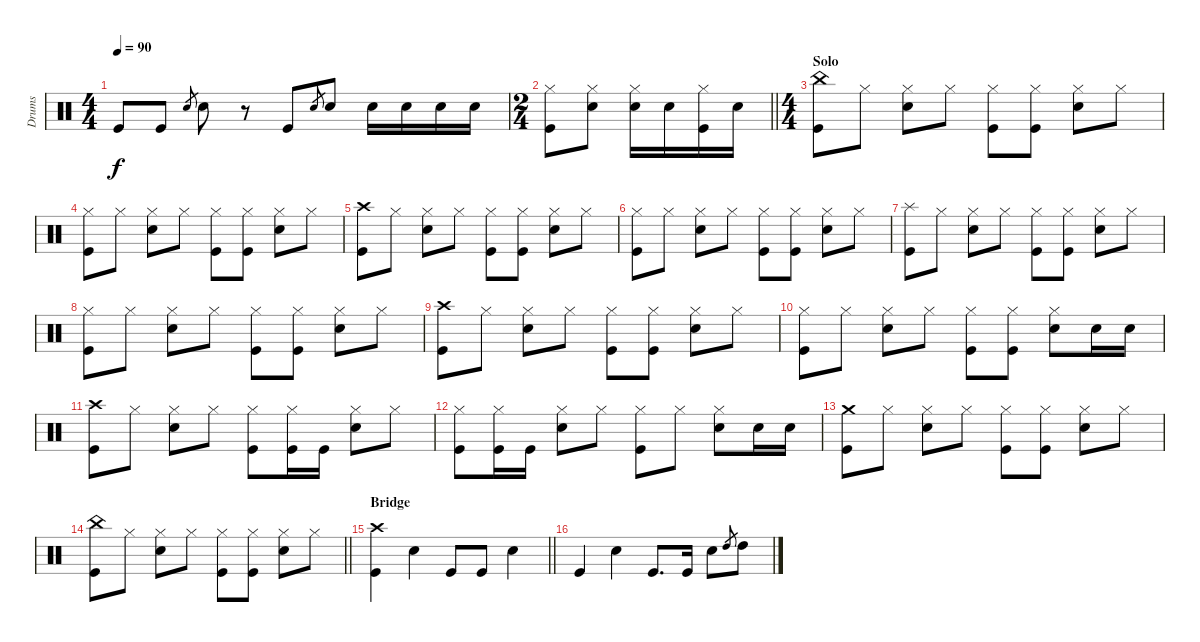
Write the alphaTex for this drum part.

\track ("Drums" "Drums") {instrument percussion}
\staff {score}
\articulation defaults
\ts (4 4)
\tempo 90
\clef neutral
\ks c "Kick (hit)".8{dy f} "Kick (hit)".8 "Snare (hit) 2".8{gr} "Snare (hit) 2".8
r.8 "Kick (hit)".8 "Snare (hit) 2".8{gr} "Snare (hit) 2".8 "Snare (hit) 2".16 "Snare (hit) 2".16 "Snare (hit) 2".16 "Snare (hit) 2".16 |
\ts (2 4)
\barLineRight lightlight
("Kick (hit)" "Hi-Hat (closed)").8 ("Snare (hit) 2" "Hi-Hat (closed)").8 ("Snare (hit) 2" "Hi-Hat (closed)").16 "Snare (hit) 2".16 ("Kick (hit)" "Hi-Hat (closed)").16 "Snare (hit) 2".16 |
\ts (4 4)
\section ("" "Solo")
("Kick (hit)" "China (hit)").8 "Hi-Hat (closed)".8 ("Snare (hit) 2" "Hi-Hat (closed)").8 "Hi-Hat (closed)".8 ("Kick (hit)" "Hi-Hat (closed)").8 ("Kick (hit)" "Hi-Hat (closed)").8 ("Snare (hit) 2" "Hi-Hat (closed)").8 "Hi-Hat (closed)".8 |
("Kick (hit)" "Hi-Hat (closed)").8 "Hi-Hat (closed)".8 ("Snare (hit) 2" "Hi-Hat (closed)").8 "Hi-Hat (closed)".8 ("Kick (hit)" "Hi-Hat (closed)").8 ("Kick (hit)" "Hi-Hat (closed)").8 ("Snare (hit) 2" "Hi-Hat (closed)").8 "Hi-Hat (closed)".8 |
("Kick (hit)" "Crash high (hit)").8 "Hi-Hat (closed)".8 ("Snare (hit) 2" "Hi-Hat (closed)").8 "Hi-Hat (closed)".8 ("Kick (hit)" "Hi-Hat (closed)").8 ("Kick (hit)" "Hi-Hat (closed)").8 ("Snare (hit) 2" "Hi-Hat (closed)").8 "Hi-Hat (closed)".8 |
("Kick (hit)" "Hi-Hat (closed)").8 "Hi-Hat (closed)".8 ("Snare (hit) 2" "Hi-Hat (closed)").8 "Hi-Hat (closed)".8 ("Kick (hit)" "Hi-Hat (closed)").8 ("Kick (hit)" "Hi-Hat (closed)").8 ("Snare (hit) 2" "Hi-Hat (closed)").8 "Hi-Hat (closed)".8 |
("Kick (hit)" "Splash (hit)").8 "Hi-Hat (closed)".8 ("Snare (hit) 2" "Hi-Hat (closed)").8 "Hi-Hat (closed)".8 ("Kick (hit)" "Hi-Hat (closed)").8 ("Kick (hit)" "Hi-Hat (closed)").8 ("Snare (hit) 2" "Hi-Hat (closed)").8 "Hi-Hat (closed)".8 |
("Kick (hit)" "Hi-Hat (closed)").8 "Hi-Hat (closed)".8 ("Snare (hit) 2" "Hi-Hat (closed)").8 "Hi-Hat (closed)".8 ("Kick (hit)" "Hi-Hat (closed)").8 ("Kick (hit)" "Hi-Hat (closed)").8 ("Snare (hit) 2" "Hi-Hat (closed)").8 "Hi-Hat (closed)".8 |
("Kick (hit)" "Crash high (hit)").8 "Hi-Hat (closed)".8 ("Snare (hit) 2" "Hi-Hat (closed)").8 "Hi-Hat (closed)".8 ("Kick (hit)" "Hi-Hat (closed)").8 ("Kick (hit)" "Hi-Hat (closed)").8 ("Snare (hit) 2" "Hi-Hat (closed)").8 "Hi-Hat (closed)".8 |
("Kick (hit)" "Hi-Hat (closed)").8 "Hi-Hat (closed)".8 ("Snare (hit) 2" "Hi-Hat (closed)").8 "Hi-Hat (closed)".8 ("Kick (hit)" "Hi-Hat (closed)").8 ("Kick (hit)" "Hi-Hat (closed)").8 ("Snare (hit) 2" "Hi-Hat (closed)").8 "Snare (hit) 2".16 "Snare (hit) 2".16 |
("Kick (hit)" "Crash high (hit)").8 "Hi-Hat (closed)".8 ("Snare (hit) 2" "Hi-Hat (closed)").8 "Hi-Hat (closed)".8 ("Kick (hit)" "Hi-Hat (closed)").8 ("Kick (hit)" "Hi-Hat (closed)").16 "Kick (hit)".16 ("Snare (hit) 2" "Hi-Hat (closed)").8 "Hi-Hat (closed)".8 |
("Kick (hit)" "Hi-Hat (closed)").8 ("Kick (hit)" "Hi-Hat (closed)").16 "Kick (hit)".16 ("Snare (hit) 2" "Hi-Hat (closed)").8 "Hi-Hat (closed)".8 ("Kick (hit)" "Hi-Hat (closed)").8 "Hi-Hat (closed)".8 ("Snare (hit) 2" "Hi-Hat (closed)").8 "Snare (hit) 2".16 "Snare (hit) 2".16 |
("Kick (hit)" "Crash medium (hit)").8 "Hi-Hat (closed)".8 ("Snare (hit) 2" "Hi-Hat (closed)").8 "Hi-Hat (closed)".8 ("Kick (hit)" "Hi-Hat (closed)").8 ("Kick (hit)" "Hi-Hat (closed)").8 ("Snare (hit) 2" "Hi-Hat (closed)").8 "Hi-Hat (closed)".8 |
\barLineRight lightlight
("Kick (hit)" "China (hit)").8 "Hi-Hat (closed)".8 ("Snare (hit) 2" "Hi-Hat (closed)").8 "Hi-Hat (closed)".8 ("Kick (hit)" "Hi-Hat (closed)").8 ("Kick (hit)" "Hi-Hat (closed)").8 ("Snare (hit) 2" "Hi-Hat (closed)").8 "Hi-Hat (closed)".8 |
\section ("" "Bridge")
\barLineRight lightlight
("Crash high (hit)" "Kick (hit)").4 "Snare (hit) 2".4 "Kick (hit)".8 "Kick (hit)".8 "Snare (hit) 2".4 |
"Kick (hit)".4 "Snare (hit) 2".4 "Kick (hit)".8{d} "Kick (hit)".16 "Snare (hit) 2".8 "High Tom (hit)".8{gr} "High Tom (hit)".8
